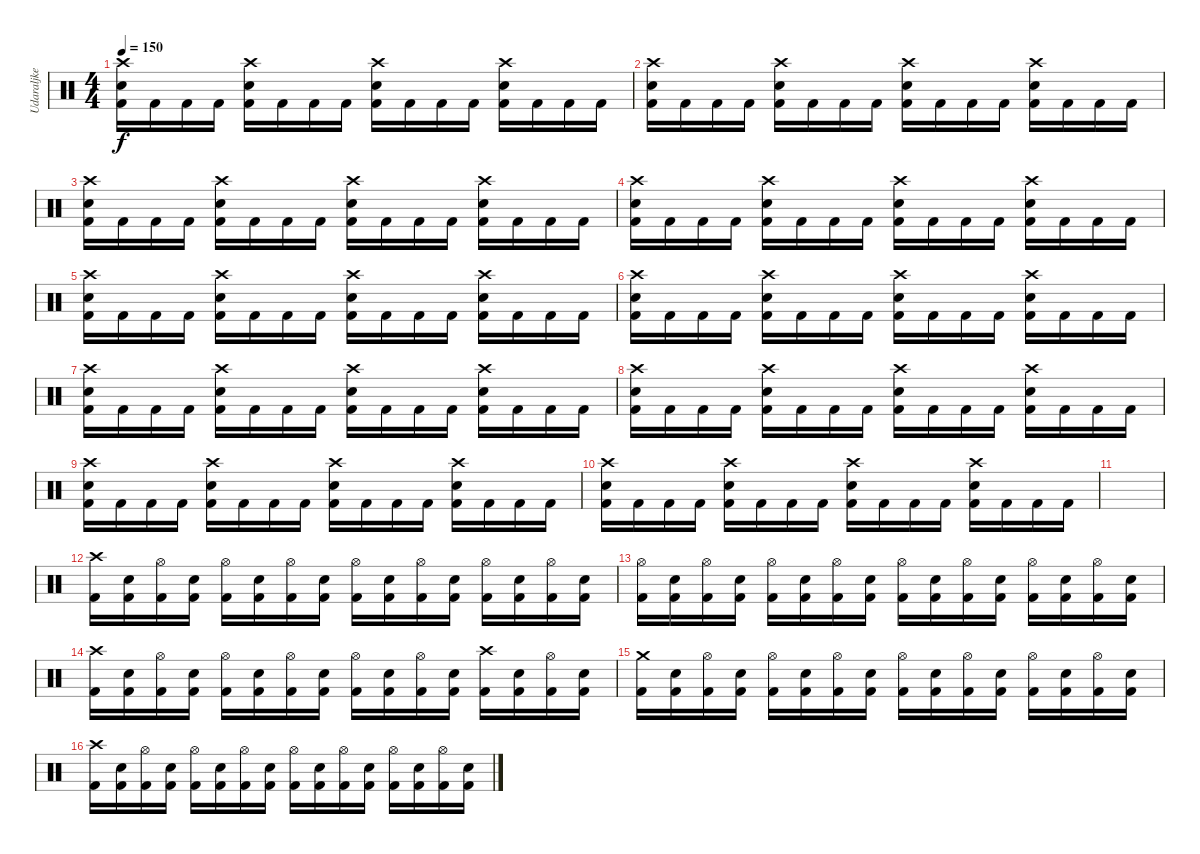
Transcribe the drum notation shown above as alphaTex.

\track ("Udaraljke" "Udaraljke") {instrument percussion}
\staff {score}
\articulation defaults
\ts (4 4)
\tempo 150
\clef neutral
\ks c
("Crash high (hit)" "Electric Snare (hit)" "Kick (hit) 2").16{dy f} "Kick (hit) 2".16 "Kick (hit) 2".16 "Kick (hit) 2".16 ("Crash high (hit)" "Electric Snare (hit)" "Kick (hit) 2").16 "Kick (hit) 2".16 "Kick (hit) 2".16 "Kick (hit) 2".16 ("Crash high (hit)" "Electric Snare (hit)" "Kick (hit) 2").16 "Kick (hit) 2".16 "Kick (hit) 2".16 "Kick (hit) 2".16 ("Crash high (hit)" "Electric Snare (hit)" "Kick (hit) 2").16 "Kick (hit) 2".16 "Kick (hit) 2".16 "Kick (hit) 2".16 |
("Crash high (hit)" "Electric Snare (hit)" "Kick (hit) 2").16 "Kick (hit) 2".16 "Kick (hit) 2".16 "Kick (hit) 2".16 ("Crash high (hit)" "Electric Snare (hit)" "Kick (hit) 2").16 "Kick (hit) 2".16 "Kick (hit) 2".16 "Kick (hit) 2".16 ("Crash high (hit)" "Electric Snare (hit)" "Kick (hit) 2").16 "Kick (hit) 2".16 "Kick (hit) 2".16 "Kick (hit) 2".16 ("Crash high (hit)" "Electric Snare (hit)" "Kick (hit) 2").16 "Kick (hit) 2".16 "Kick (hit) 2".16 "Kick (hit) 2".16 |
("Crash high (hit)" "Electric Snare (hit)" "Kick (hit) 2").16 "Kick (hit) 2".16 "Kick (hit) 2".16 "Kick (hit) 2".16 ("Crash high (hit)" "Electric Snare (hit)" "Kick (hit) 2").16 "Kick (hit) 2".16 "Kick (hit) 2".16 "Kick (hit) 2".16 ("Crash high (hit)" "Electric Snare (hit)" "Kick (hit) 2").16 "Kick (hit) 2".16 "Kick (hit) 2".16 "Kick (hit) 2".16 ("Crash high (hit)" "Electric Snare (hit)" "Kick (hit) 2").16 "Kick (hit) 2".16 "Kick (hit) 2".16 "Kick (hit) 2".16 |
("Crash high (hit)" "Electric Snare (hit)" "Kick (hit) 2").16 "Kick (hit) 2".16 "Kick (hit) 2".16 "Kick (hit) 2".16 ("Crash high (hit)" "Electric Snare (hit)" "Kick (hit) 2").16 "Kick (hit) 2".16 "Kick (hit) 2".16 "Kick (hit) 2".16 ("Crash high (hit)" "Electric Snare (hit)" "Kick (hit) 2").16 "Kick (hit) 2".16 "Kick (hit) 2".16 "Kick (hit) 2".16 ("Crash high (hit)" "Electric Snare (hit)" "Kick (hit) 2").16 "Kick (hit) 2".16 "Kick (hit) 2".16 "Kick (hit) 2".16 |
("Crash high (hit)" "Electric Snare (hit)" "Kick (hit) 2").16 "Kick (hit) 2".16 "Kick (hit) 2".16 "Kick (hit) 2".16 ("Crash high (hit)" "Electric Snare (hit)" "Kick (hit) 2").16 "Kick (hit) 2".16 "Kick (hit) 2".16 "Kick (hit) 2".16 ("Crash high (hit)" "Electric Snare (hit)" "Kick (hit) 2").16 "Kick (hit) 2".16 "Kick (hit) 2".16 "Kick (hit) 2".16 ("Crash high (hit)" "Electric Snare (hit)" "Kick (hit) 2").16 "Kick (hit) 2".16 "Kick (hit) 2".16 "Kick (hit) 2".16 |
("Crash high (hit)" "Electric Snare (hit)" "Kick (hit) 2").16 "Kick (hit) 2".16 "Kick (hit) 2".16 "Kick (hit) 2".16 ("Crash high (hit)" "Electric Snare (hit)" "Kick (hit) 2").16 "Kick (hit) 2".16 "Kick (hit) 2".16 "Kick (hit) 2".16 ("Crash high (hit)" "Electric Snare (hit)" "Kick (hit) 2").16 "Kick (hit) 2".16 "Kick (hit) 2".16 "Kick (hit) 2".16 ("Crash high (hit)" "Electric Snare (hit)" "Kick (hit) 2").16 "Kick (hit) 2".16 "Kick (hit) 2".16 "Kick (hit) 2".16 |
("Crash high (hit)" "Electric Snare (hit)" "Kick (hit) 2").16 "Kick (hit) 2".16 "Kick (hit) 2".16 "Kick (hit) 2".16 ("Crash high (hit)" "Electric Snare (hit)" "Kick (hit) 2").16 "Kick (hit) 2".16 "Kick (hit) 2".16 "Kick (hit) 2".16 ("Crash high (hit)" "Electric Snare (hit)" "Kick (hit) 2").16 "Kick (hit) 2".16 "Kick (hit) 2".16 "Kick (hit) 2".16 ("Crash high (hit)" "Electric Snare (hit)" "Kick (hit) 2").16 "Kick (hit) 2".16 "Kick (hit) 2".16 "Kick (hit) 2".16 |
("Crash high (hit)" "Electric Snare (hit)" "Kick (hit) 2").16 "Kick (hit) 2".16 "Kick (hit) 2".16 "Kick (hit) 2".16 ("Crash high (hit)" "Electric Snare (hit)" "Kick (hit) 2").16 "Kick (hit) 2".16 "Kick (hit) 2".16 "Kick (hit) 2".16 ("Crash high (hit)" "Electric Snare (hit)" "Kick (hit) 2").16 "Kick (hit) 2".16 "Kick (hit) 2".16 "Kick (hit) 2".16 ("Crash high (hit)" "Electric Snare (hit)" "Kick (hit) 2").16 "Kick (hit) 2".16 "Kick (hit) 2".16 "Kick (hit) 2".16 |
("Crash high (hit)" "Electric Snare (hit)" "Kick (hit) 2").16 "Kick (hit) 2".16 "Kick (hit) 2".16 "Kick (hit) 2".16 ("Crash high (hit)" "Electric Snare (hit)" "Kick (hit) 2").16 "Kick (hit) 2".16 "Kick (hit) 2".16 "Kick (hit) 2".16 ("Crash high (hit)" "Electric Snare (hit)" "Kick (hit) 2").16 "Kick (hit) 2".16 "Kick (hit) 2".16 "Kick (hit) 2".16 ("Crash high (hit)" "Electric Snare (hit)" "Kick (hit) 2").16 "Kick (hit) 2".16 "Kick (hit) 2".16 "Kick (hit) 2".16 |
("Crash high (hit)" "Electric Snare (hit)" "Kick (hit) 2").16 "Kick (hit) 2".16 "Kick (hit) 2".16 "Kick (hit) 2".16 ("Crash high (hit)" "Electric Snare (hit)" "Kick (hit) 2").16 "Kick (hit) 2".16 "Kick (hit) 2".16 "Kick (hit) 2".16 ("Crash high (hit)" "Electric Snare (hit)" "Kick (hit) 2").16 "Kick (hit) 2".16 "Kick (hit) 2".16 "Kick (hit) 2".16 ("Crash high (hit)" "Electric Snare (hit)" "Kick (hit) 2").16 "Kick (hit) 2".16 "Kick (hit) 2".16 "Kick (hit) 2".16 |
|
("Crash high (hit)" "Kick (hit) 2").16 ("Electric Snare (hit)" "Kick (hit) 2").16 ("Hi-Hat (open)" "Kick (hit) 2").16 ("Electric Snare (hit)" "Kick (hit) 2").16 ("Hi-Hat (open)" "Kick (hit) 2").16 ("Electric Snare (hit)" "Kick (hit) 2").16 ("Hi-Hat (open)" "Kick (hit) 2").16 ("Electric Snare (hit)" "Kick (hit) 2").16 ("Hi-Hat (open)" "Kick (hit) 2").16 ("Electric Snare (hit)" "Kick (hit) 2").16 ("Hi-Hat (open)" "Kick (hit) 2").16 ("Electric Snare (hit)" "Kick (hit) 2").16 ("Hi-Hat (open)" "Kick (hit) 2").16 ("Electric Snare (hit)" "Kick (hit) 2").16 ("Hi-Hat (open)" "Kick (hit) 2").16 ("Electric Snare (hit)" "Kick (hit) 2").16 |
("Hi-Hat (open)" "Kick (hit) 2").16 ("Electric Snare (hit)" "Kick (hit) 2").16 ("Hi-Hat (open)" "Kick (hit) 2").16 ("Electric Snare (hit)" "Kick (hit) 2").16 ("Hi-Hat (open)" "Kick (hit) 2").16 ("Electric Snare (hit)" "Kick (hit) 2").16 ("Hi-Hat (open)" "Kick (hit) 2").16 ("Electric Snare (hit)" "Kick (hit) 2").16 ("Hi-Hat (open)" "Kick (hit) 2").16 ("Electric Snare (hit)" "Kick (hit) 2").16 ("Hi-Hat (open)" "Kick (hit) 2").16 ("Electric Snare (hit)" "Kick (hit) 2").16 ("Hi-Hat (open)" "Kick (hit) 2").16 ("Electric Snare (hit)" "Kick (hit) 2").16 ("Hi-Hat (open)" "Kick (hit) 2").16 ("Electric Snare (hit)" "Kick (hit) 2").16 |
("Crash high (hit)" "Kick (hit) 2").16 ("Electric Snare (hit)" "Kick (hit) 2").16 ("Hi-Hat (open)" "Kick (hit) 2").16 ("Electric Snare (hit)" "Kick (hit) 2").16 ("Hi-Hat (open)" "Kick (hit) 2").16 ("Electric Snare (hit)" "Kick (hit) 2").16 ("Hi-Hat (open)" "Kick (hit) 2").16 ("Electric Snare (hit)" "Kick (hit) 2").16 ("Hi-Hat (open)" "Kick (hit) 2").16 ("Electric Snare (hit)" "Kick (hit) 2").16 ("Hi-Hat (open)" "Kick (hit) 2").16 ("Electric Snare (hit)" "Kick (hit) 2").16 ("Crash high (hit)" "Kick (hit) 2").16 ("Electric Snare (hit)" "Kick (hit) 2").16 ("Hi-Hat (open)" "Kick (hit) 2").16 ("Electric Snare (hit)" "Kick (hit) 2").16 |
("Crash medium (hit)" "Kick (hit) 2").16 ("Electric Snare (hit)" "Kick (hit) 2").16 ("Hi-Hat (open)" "Kick (hit) 2").16 ("Electric Snare (hit)" "Kick (hit) 2").16 ("Hi-Hat (open)" "Kick (hit) 2").16 ("Electric Snare (hit)" "Kick (hit) 2").16 ("Hi-Hat (open)" "Kick (hit) 2").16 ("Electric Snare (hit)" "Kick (hit) 2").16 ("Hi-Hat (open)" "Kick (hit) 2").16 ("Electric Snare (hit)" "Kick (hit) 2").16 ("Hi-Hat (open)" "Kick (hit) 2").16 ("Electric Snare (hit)" "Kick (hit) 2").16 ("Hi-Hat (open)" "Kick (hit) 2").16 ("Electric Snare (hit)" "Kick (hit) 2").16 ("Hi-Hat (open)" "Kick (hit) 2").16 ("Electric Snare (hit)" "Kick (hit) 2").16 |
("Crash high (hit)" "Kick (hit) 2").16 ("Electric Snare (hit)" "Kick (hit) 2").16 ("Hi-Hat (open)" "Kick (hit) 2").16 ("Electric Snare (hit)" "Kick (hit) 2").16 ("Hi-Hat (open)" "Kick (hit) 2").16 ("Electric Snare (hit)" "Kick (hit) 2").16 ("Hi-Hat (open)" "Kick (hit) 2").16 ("Electric Snare (hit)" "Kick (hit) 2").16 ("Hi-Hat (open)" "Kick (hit) 2").16 ("Electric Snare (hit)" "Kick (hit) 2").16 ("Hi-Hat (open)" "Kick (hit) 2").16 ("Electric Snare (hit)" "Kick (hit) 2").16 ("Hi-Hat (open)" "Kick (hit) 2").16 ("Electric Snare (hit)" "Kick (hit) 2").16 ("Hi-Hat (open)" "Kick (hit) 2").16 ("Electric Snare (hit)" "Kick (hit) 2").16
